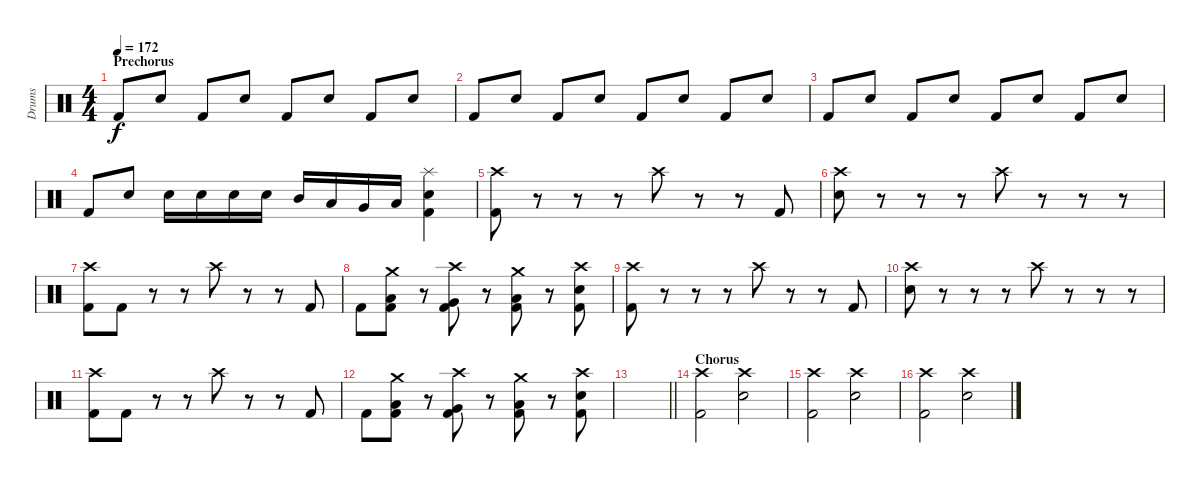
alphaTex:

\track ("Drums" "Drums") {instrument percussion}
\staff {score}
\articulation defaults
\ts (4 4)
\section ("" "Prechorus")
\tempo 172
\clef neutral
\ks c "Kick (hit) 2".8{dy f} "Electric Snare (hit)".8 "Kick (hit) 2".8 "Electric Snare (hit)".8 "Kick (hit) 2".8 "Electric Snare (hit)".8 "Kick (hit) 2".8 "Electric Snare (hit)".8
|
"Kick (hit) 2".8 "Electric Snare (hit)".8 "Kick (hit) 2".8 "Electric Snare (hit)".8 "Kick (hit) 2".8 "Electric Snare (hit)".8 "Kick (hit) 2".8 "Electric Snare (hit)".8 |
"Kick (hit) 2".8 "Electric Snare (hit)".8 "Kick (hit) 2".8 "Electric Snare (hit)".8 "Kick (hit) 2".8 "Electric Snare (hit)".8 "Kick (hit) 2".8 "Electric Snare (hit)".8 |
"Kick (hit) 2".8 "Electric Snare (hit)".8 "Electric Snare (hit)".16 "Electric Snare (hit)".16 "Electric Snare (hit)".16 "Electric Snare (hit)".16 "Mid Tom (hit)".16 "Low Tom (hit)".16 "Very Low Tom (hit)".16 "Low Floor Tom (hit)".16 ("Splash (hit)" "Electric Snare (hit)" "Kick (hit) 2").4 |
("Crash high (hit)" "Kick (hit) 2").8 r.8 r.8 r.8 "Crash high (hit)".8 r.8 r.8 "Kick (hit) 2".8 |
("Crash high (hit)" "Electric Snare (hit)").8 r.8 r.8 r.8 "Crash high (hit)".8 r.8 r.8 r.8 |
("Crash high (hit)" "Kick (hit) 2").8 "Kick (hit) 2".8 r.8 r.8 "Crash high (hit)".8 r.8 r.8 "Kick (hit) 2".8 |
"Kick (hit) 2".8 ("Crash medium (hit)" "Low Tom (hit)" "Kick (hit) 2").8 r.8 ("Crash high (hit)" "Very Low Tom (hit)" "Kick (hit) 2").8 r.8 ("Crash medium (hit)" "Low Floor Tom (hit)" "Kick (hit) 2").8 r.8 ("Crash high (hit)" "Electric Snare (hit)" "Kick (hit) 2").8 |
("Crash high (hit)" "Kick (hit) 2").8 r.8 r.8 r.8 "Crash high (hit)".8 r.8 r.8 "Kick (hit) 2".8 |
("Crash high (hit)" "Electric Snare (hit)").8 r.8 r.8 r.8 "Crash high (hit)".8 r.8 r.8 r.8 |
("Crash high (hit)" "Kick (hit) 2").8 "Kick (hit) 2".8 r.8 r.8 "Crash high (hit)".8 r.8 r.8 "Kick (hit) 2".8 |
"Kick (hit) 2".8 ("Crash medium (hit)" "Low Tom (hit)" "Kick (hit) 2").8 r.8 ("Crash high (hit)" "Very Low Tom (hit)" "Kick (hit) 2").8 r.8 ("Crash medium (hit)" "Low Floor Tom (hit)" "Kick (hit) 2").8 r.8 ("Crash high (hit)" "Electric Snare (hit)" "Kick (hit) 2").8 |
\barLineRight lightlight
|
\section ("" "Chorus")
("Crash high (hit)" "Kick (hit) 2").2 ("Crash high (hit)" "Electric Snare (hit)").2 |
("Crash high (hit)" "Kick (hit) 2").2 ("Crash high (hit)" "Electric Snare (hit)").2 |
("Crash high (hit)" "Kick (hit) 2").2 ("Crash high (hit)" "Electric Snare (hit)").2
